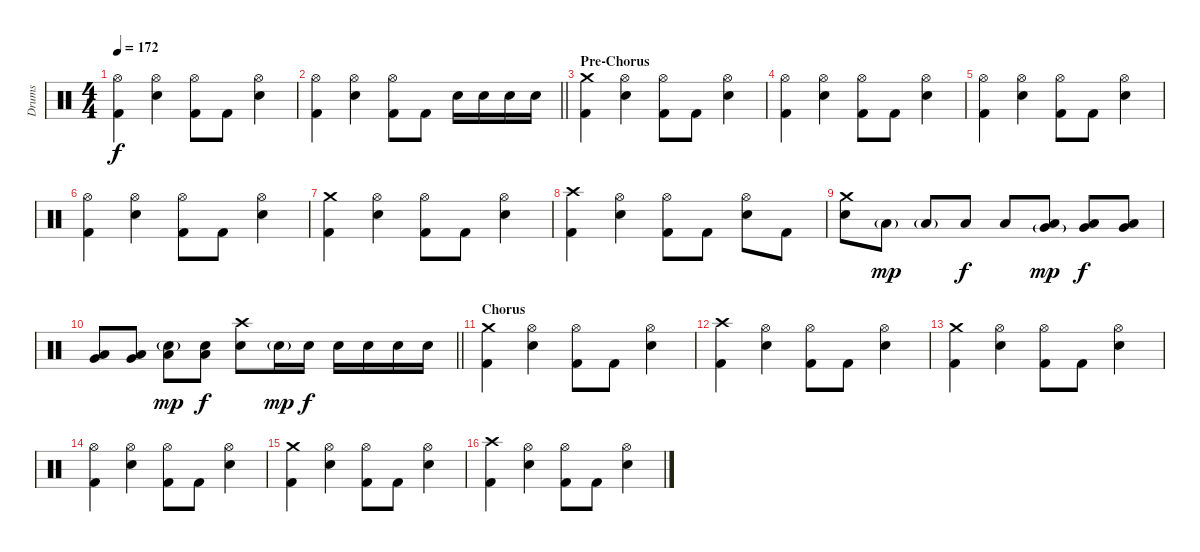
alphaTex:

\track ("Drums" "Drums") {instrument percussion}
\staff {score}
\articulation defaults
\ts (4 4)
\tempo 172
\clef neutral
\ks c
("Hi-Hat (open)" "Kick (hit) 2").4{dy f} ("Hi-Hat (open)" "Electric Snare (hit)").4 ("Hi-Hat (open)" "Kick (hit) 2").8 "Kick (hit) 2".8 ("Hi-Hat (open)" "Electric Snare (hit)").4 |
\barLineRight lightlight
("Hi-Hat (open)" "Kick (hit) 2").4 ("Hi-Hat (open)" "Electric Snare (hit)").4 ("Hi-Hat (open)" "Kick (hit) 2").8 "Kick (hit) 2".8 "Electric Snare (hit)".16 "Electric Snare (hit)".16 "Electric Snare (hit)".16 "Electric Snare (hit)".16 |
\section ("" "Pre-Chorus")
("Crash medium (hit)" "Kick (hit) 2").4 ("Hi-Hat (open)" "Electric Snare (hit)").4 ("Hi-Hat (open)" "Kick (hit) 2").8 "Kick (hit) 2".8 ("Hi-Hat (open)" "Electric Snare (hit)").4 |
("Hi-Hat (open)" "Kick (hit) 2").4 ("Hi-Hat (open)" "Electric Snare (hit)").4 ("Hi-Hat (open)" "Kick (hit) 2").8 "Kick (hit) 2".8 ("Hi-Hat (open)" "Electric Snare (hit)").4 |
("Hi-Hat (open)" "Kick (hit) 2").4 ("Hi-Hat (open)" "Electric Snare (hit)").4 ("Hi-Hat (open)" "Kick (hit) 2").8 "Kick (hit) 2".8 ("Hi-Hat (open)" "Electric Snare (hit)").4 |
("Hi-Hat (open)" "Kick (hit) 2").4 ("Hi-Hat (open)" "Electric Snare (hit)").4 ("Hi-Hat (open)" "Kick (hit) 2").8 "Kick (hit) 2".8 ("Hi-Hat (open)" "Electric Snare (hit)").4 |
("Crash medium (hit)" "Kick (hit) 2").4 ("Hi-Hat (open)" "Electric Snare (hit)").4 ("Hi-Hat (open)" "Kick (hit) 2").8 "Kick (hit) 2".8 ("Hi-Hat (open)" "Electric Snare (hit)").4 |
("Crash high (hit)" "Kick (hit) 2").4 ("Hi-Hat (open)" "Electric Snare (hit)").4 ("Hi-Hat (open)" "Kick (hit) 2").8 "Kick (hit) 2".8 ("Hi-Hat (open)" "Electric Snare (hit)").8 "Kick (hit) 2".8 |
("Crash medium (hit)" "Electric Snare (hit)").8 "Low Floor Tom (hit)"{g}.8{dy mp} "Low Floor Tom (hit)"{g}.8 "Low Floor Tom (hit)".8{dy f} "Low Floor Tom (hit)".8 ("Very Low Tom (hit)"{g} "Low Floor Tom (hit)").8{dy mp} ("Very Low Tom (hit)" "Low Floor Tom (hit)").8{dy f} ("Very Low Tom (hit)" "Low Floor Tom (hit)").8 |
\barLineRight lightlight
("Very Low Tom (hit)" "Low Tom (hit)").8 ("Very Low Tom (hit)" "Low Tom (hit)").8 ("Low Tom (hit)" "Electric Snare (hit)"{g}).8{dy mp} ("Low Tom (hit)" "Electric Snare (hit)").8{dy f} ("Crash high (hit)" "Electric Snare (hit)").8 "Electric Snare (hit)"{g}.16{dy mp} "Electric Snare (hit)".16{dy f} "Electric Snare (hit)".16 "Electric Snare (hit)".16 "Electric Snare (hit)".16 "Electric Snare (hit)".16 |
\section ("" "Chorus")
("Crash medium (hit)" "Kick (hit) 2").4 ("Hi-Hat (open)" "Electric Snare (hit)").4 ("Hi-Hat (open)" "Kick (hit) 2").8 "Kick (hit) 2".8 ("Hi-Hat (open)" "Electric Snare (hit)").4 |
("Crash high (hit)" "Kick (hit) 2").4 ("Hi-Hat (open)" "Electric Snare (hit)").4 ("Hi-Hat (open)" "Kick (hit) 2").8 "Kick (hit) 2".8 ("Hi-Hat (open)" "Electric Snare (hit)").4 |
("Crash medium (hit)" "Kick (hit) 2").4 ("Hi-Hat (open)" "Electric Snare (hit)").4 ("Hi-Hat (open)" "Kick (hit) 2").8 "Kick (hit) 2".8 ("Hi-Hat (open)" "Electric Snare (hit)").4 |
("Hi-Hat (open)" "Kick (hit) 2").4 ("Hi-Hat (open)" "Electric Snare (hit)").4 ("Hi-Hat (open)" "Kick (hit) 2").8 "Kick (hit) 2".8 ("Hi-Hat (open)" "Electric Snare (hit)").4 |
("Crash medium (hit)" "Kick (hit) 2").4 ("Hi-Hat (open)" "Electric Snare (hit)").4 ("Hi-Hat (open)" "Kick (hit) 2").8 "Kick (hit) 2".8 ("Hi-Hat (open)" "Electric Snare (hit)").4 |
("Crash high (hit)" "Kick (hit) 2").4 ("Hi-Hat (open)" "Electric Snare (hit)").4 ("Hi-Hat (open)" "Kick (hit) 2").8 "Kick (hit) 2".8 ("Hi-Hat (open)" "Electric Snare (hit)").4
